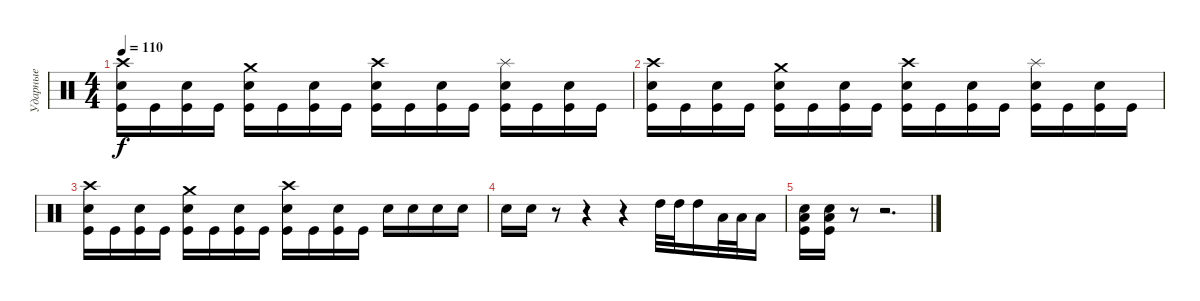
\track ("Ударные" "Ударные") {instrument percussion}
\staff {score}
\articulation defaults
\ts (4 4)
\tempo 110
\clef neutral
\ks c
("Crash high (hit)" "Electric Snare (hit)" "Kick (hit)").16{dy f} "Kick (hit)".16 ("Electric Snare (hit)" "Kick (hit)").16 "Kick (hit)".16 ("Crash medium (hit)" "Electric Snare (hit)" "Kick (hit)").16 "Kick (hit)".16 ("Electric Snare (hit)" "Kick (hit)").16 "Kick (hit)".16 ("Crash high (hit)" "Electric Snare (hit)" "Kick (hit)").16 "Kick (hit)".16 ("Electric Snare (hit)" "Kick (hit)").16 "Kick (hit)".16 ("Splash (hit)" "Electric Snare (hit)" "Kick (hit)").16 "Kick (hit)".16 ("Electric Snare (hit)" "Kick (hit)").16 "Kick (hit)".16 |
("Crash high (hit)" "Electric Snare (hit)" "Kick (hit)").16 "Kick (hit)".16 ("Electric Snare (hit)" "Kick (hit)").16 "Kick (hit)".16 ("Crash medium (hit)" "Electric Snare (hit)" "Kick (hit)").16 "Kick (hit)".16 ("Electric Snare (hit)" "Kick (hit)").16 "Kick (hit)".16 ("Crash high (hit)" "Electric Snare (hit)" "Kick (hit)").16 "Kick (hit)".16 ("Electric Snare (hit)" "Kick (hit)").16 "Kick (hit)".16 ("Splash (hit)" "Electric Snare (hit)" "Kick (hit)").16 "Kick (hit)".16 ("Electric Snare (hit)" "Kick (hit)").16 "Kick (hit)".16 |
("Crash high (hit)" "Electric Snare (hit)" "Kick (hit)").16 "Kick (hit)".16 ("Electric Snare (hit)" "Kick (hit)").16 "Kick (hit)".16 ("Crash medium (hit)" "Electric Snare (hit)" "Kick (hit)").16 "Kick (hit)".16 ("Electric Snare (hit)" "Kick (hit)").16 "Kick (hit)".16 ("Crash high (hit)" "Electric Snare (hit)" "Kick (hit)").16 "Kick (hit)".16 ("Electric Snare (hit)" "Kick (hit)").16 "Kick (hit)".16 "Electric Snare (hit)".16 "Electric Snare (hit)".16 "Electric Snare (hit)".16 "Electric Snare (hit)".16 |
"Electric Snare (hit)".16 "Electric Snare (hit)".16 r.8 r.4 r.4 "High Tom (hit)".32 "High Tom (hit)".32 "High Tom (hit)".16 "Low Tom (hit)".32 "Low Tom (hit)".32 "Low Tom (hit)".16 |
("Electric Snare (hit)" "Low Tom (hit)" "Kick (hit)").16 ("Electric Snare (hit)" "Low Tom (hit)" "Kick (hit)").16 r.8 r.2{d}
